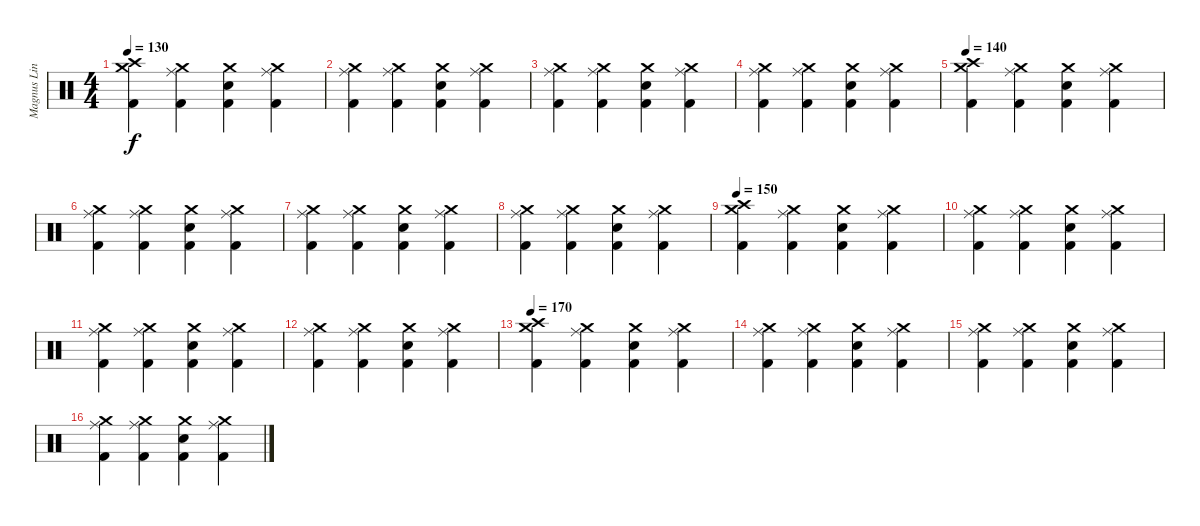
\track ("Magnus Lindberg" "Magnus Lin") {instrument percussion}
\staff {score}
\articulation defaults
\ts (4 4)
\tempo 130
\clef neutral
\ks c
("Crash medium (hit)" "Crash high (hit)" "Kick (hit) 2").4{dy f} ("Crash medium (hit)" "Ride (middle)" "Kick (hit) 2").4 ("Crash medium (hit)" "Snare (hit) 2" "Kick (hit) 2").4 ("Crash medium (hit)" "Ride (middle)" "Kick (hit) 2").4 |
("Crash medium (hit)" "Ride (middle)" "Kick (hit) 2").4 ("Crash medium (hit)" "Ride (middle)" "Kick (hit) 2").4 ("Crash medium (hit)" "Snare (hit) 2" "Kick (hit) 2").4 ("Crash medium (hit)" "Ride (middle)" "Kick (hit) 2").4 |
("Crash medium (hit)" "Ride (middle)" "Kick (hit) 2").4 ("Crash medium (hit)" "Ride (middle)" "Kick (hit) 2").4 ("Crash medium (hit)" "Snare (hit) 2" "Kick (hit) 2").4 ("Crash medium (hit)" "Ride (middle)" "Kick (hit) 2").4 |
("Crash medium (hit)" "Ride (middle)" "Kick (hit) 2").4 ("Crash medium (hit)" "Ride (middle)" "Kick (hit) 2").4 ("Crash medium (hit)" "Snare (hit) 2" "Kick (hit) 2").4 ("Crash medium (hit)" "Ride (middle)" "Kick (hit) 2").4 |
\tempo 140
("Crash medium (hit)" "Crash high (hit)" "Kick (hit) 2").4 ("Crash medium (hit)" "Ride (middle)" "Kick (hit) 2").4 ("Crash medium (hit)" "Snare (hit) 2" "Kick (hit) 2").4 ("Crash medium (hit)" "Ride (middle)" "Kick (hit) 2").4 |
("Crash medium (hit)" "Ride (middle)" "Kick (hit) 2").4 ("Crash medium (hit)" "Ride (middle)" "Kick (hit) 2").4 ("Crash medium (hit)" "Snare (hit) 2" "Kick (hit) 2").4 ("Crash medium (hit)" "Ride (middle)" "Kick (hit) 2").4 |
("Crash medium (hit)" "Ride (middle)" "Kick (hit) 2").4 ("Crash medium (hit)" "Ride (middle)" "Kick (hit) 2").4 ("Crash medium (hit)" "Snare (hit) 2" "Kick (hit) 2").4 ("Crash medium (hit)" "Ride (middle)" "Kick (hit) 2").4 |
("Crash medium (hit)" "Ride (middle)" "Kick (hit) 2").4 ("Crash medium (hit)" "Ride (middle)" "Kick (hit) 2").4 ("Crash medium (hit)" "Snare (hit) 2" "Kick (hit) 2").4 ("Crash medium (hit)" "Ride (middle)" "Kick (hit) 2").4 |
\tempo 150
("Crash medium (hit)" "Crash high (hit)" "Kick (hit) 2").4 ("Crash medium (hit)" "Ride (middle)" "Kick (hit) 2").4 ("Crash medium (hit)" "Snare (hit) 2" "Kick (hit) 2").4 ("Crash medium (hit)" "Ride (middle)" "Kick (hit) 2").4 |
("Crash medium (hit)" "Ride (middle)" "Kick (hit) 2").4 ("Crash medium (hit)" "Ride (middle)" "Kick (hit) 2").4 ("Crash medium (hit)" "Snare (hit) 2" "Kick (hit) 2").4 ("Crash medium (hit)" "Ride (middle)" "Kick (hit) 2").4 |
("Crash medium (hit)" "Ride (middle)" "Kick (hit) 2").4 ("Crash medium (hit)" "Ride (middle)" "Kick (hit) 2").4 ("Crash medium (hit)" "Snare (hit) 2" "Kick (hit) 2").4 ("Crash medium (hit)" "Ride (middle)" "Kick (hit) 2").4 |
("Crash medium (hit)" "Ride (middle)" "Kick (hit) 2").4 ("Crash medium (hit)" "Ride (middle)" "Kick (hit) 2").4 ("Crash medium (hit)" "Snare (hit) 2" "Kick (hit) 2").4 ("Crash medium (hit)" "Ride (middle)" "Kick (hit) 2").4 |
\tempo 170
("Crash medium (hit)" "Crash high (hit)" "Kick (hit) 2").4 ("Crash medium (hit)" "Ride (middle)" "Kick (hit) 2").4 ("Crash medium (hit)" "Snare (hit) 2" "Kick (hit) 2").4 ("Crash medium (hit)" "Ride (middle)" "Kick (hit) 2").4 |
("Crash medium (hit)" "Ride (middle)" "Kick (hit) 2").4 ("Crash medium (hit)" "Ride (middle)" "Kick (hit) 2").4 ("Crash medium (hit)" "Snare (hit) 2" "Kick (hit) 2").4 ("Crash medium (hit)" "Ride (middle)" "Kick (hit) 2").4 |
("Crash medium (hit)" "Ride (middle)" "Kick (hit) 2").4 ("Crash medium (hit)" "Ride (middle)" "Kick (hit) 2").4 ("Crash medium (hit)" "Snare (hit) 2" "Kick (hit) 2").4 ("Crash medium (hit)" "Ride (middle)" "Kick (hit) 2").4 |
("Crash medium (hit)" "Ride (middle)" "Kick (hit) 2").4 ("Crash medium (hit)" "Ride (middle)" "Kick (hit) 2").4 ("Crash medium (hit)" "Snare (hit) 2" "Kick (hit) 2").4 ("Crash medium (hit)" "Ride (middle)" "Kick (hit) 2").4
